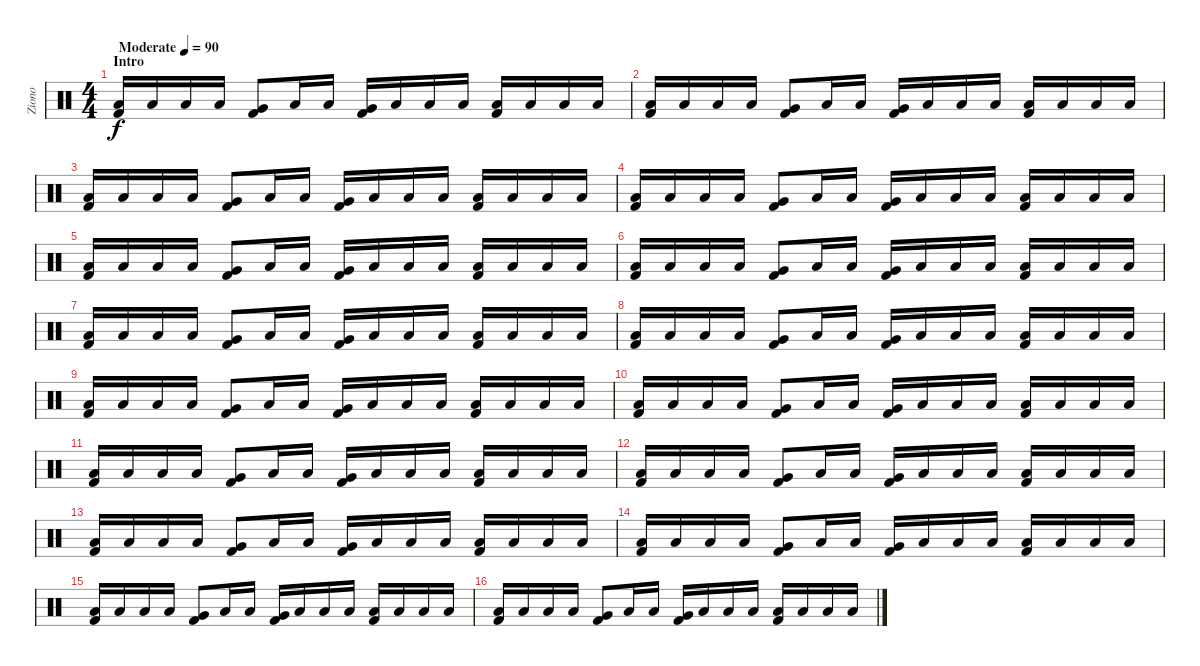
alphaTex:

\track ("Ziono" "Ziono") {instrument percussion}
\staff {score}
\articulation defaults
\ts (4 4)
\section ("" "Intro")
\tempo (90 "Moderate")
\clef neutral
\ks c
("Low Floor Tom (hit)" "Kick (hit) 2").16{dy f} "Low Floor Tom (hit)".16 "Low Floor Tom (hit)".16 "Low Floor Tom (hit)".16 ("Very Low Tom (hit)" "Kick (hit) 2").8 "Low Floor Tom (hit)".16 "Low Floor Tom (hit)".16 ("Very Low Tom (hit)" "Kick (hit) 2").16 "Low Floor Tom (hit)".16 "Low Floor Tom (hit)".16 "Low Floor Tom (hit)".16 ("Low Floor Tom (hit)" "Kick (hit) 2").16 "Low Floor Tom (hit)".16 "Low Floor Tom (hit)".16 "Low Floor Tom (hit)".16 |
("Low Floor Tom (hit)" "Kick (hit) 2").16 "Low Floor Tom (hit)".16 "Low Floor Tom (hit)".16 "Low Floor Tom (hit)".16 ("Very Low Tom (hit)" "Kick (hit) 2").8 "Low Floor Tom (hit)".16 "Low Floor Tom (hit)".16 ("Very Low Tom (hit)" "Kick (hit) 2").16 "Low Floor Tom (hit)".16 "Low Floor Tom (hit)".16 "Low Floor Tom (hit)".16 ("Low Floor Tom (hit)" "Kick (hit) 2").16 "Low Floor Tom (hit)".16 "Low Floor Tom (hit)".16 "Low Floor Tom (hit)".16 |
("Low Floor Tom (hit)" "Kick (hit) 2").16 "Low Floor Tom (hit)".16 "Low Floor Tom (hit)".16 "Low Floor Tom (hit)".16 ("Very Low Tom (hit)" "Kick (hit) 2").8 "Low Floor Tom (hit)".16 "Low Floor Tom (hit)".16 ("Very Low Tom (hit)" "Kick (hit) 2").16 "Low Floor Tom (hit)".16 "Low Floor Tom (hit)".16 "Low Floor Tom (hit)".16 ("Low Floor Tom (hit)" "Kick (hit) 2").16 "Low Floor Tom (hit)".16 "Low Floor Tom (hit)".16 "Low Floor Tom (hit)".16 |
("Low Floor Tom (hit)" "Kick (hit) 2").16 "Low Floor Tom (hit)".16 "Low Floor Tom (hit)".16 "Low Floor Tom (hit)".16 ("Very Low Tom (hit)" "Kick (hit) 2").8 "Low Floor Tom (hit)".16 "Low Floor Tom (hit)".16 ("Very Low Tom (hit)" "Kick (hit) 2").16 "Low Floor Tom (hit)".16 "Low Floor Tom (hit)".16 "Low Floor Tom (hit)".16 ("Low Floor Tom (hit)" "Kick (hit) 2").16 "Low Floor Tom (hit)".16 "Low Floor Tom (hit)".16 "Low Floor Tom (hit)".16 |
("Low Floor Tom (hit)" "Kick (hit) 2").16 "Low Floor Tom (hit)".16 "Low Floor Tom (hit)".16 "Low Floor Tom (hit)".16 ("Very Low Tom (hit)" "Kick (hit) 2").8 "Low Floor Tom (hit)".16 "Low Floor Tom (hit)".16 ("Very Low Tom (hit)" "Kick (hit) 2").16 "Low Floor Tom (hit)".16 "Low Floor Tom (hit)".16 "Low Floor Tom (hit)".16 ("Low Floor Tom (hit)" "Kick (hit) 2").16 "Low Floor Tom (hit)".16 "Low Floor Tom (hit)".16 "Low Floor Tom (hit)".16 |
("Low Floor Tom (hit)" "Kick (hit) 2").16 "Low Floor Tom (hit)".16 "Low Floor Tom (hit)".16 "Low Floor Tom (hit)".16 ("Very Low Tom (hit)" "Kick (hit) 2").8 "Low Floor Tom (hit)".16 "Low Floor Tom (hit)".16 ("Very Low Tom (hit)" "Kick (hit) 2").16 "Low Floor Tom (hit)".16 "Low Floor Tom (hit)".16 "Low Floor Tom (hit)".16 ("Low Floor Tom (hit)" "Kick (hit) 2").16 "Low Floor Tom (hit)".16 "Low Floor Tom (hit)".16 "Low Floor Tom (hit)".16 |
("Low Floor Tom (hit)" "Kick (hit) 2").16 "Low Floor Tom (hit)".16 "Low Floor Tom (hit)".16 "Low Floor Tom (hit)".16 ("Very Low Tom (hit)" "Kick (hit) 2").8 "Low Floor Tom (hit)".16 "Low Floor Tom (hit)".16 ("Very Low Tom (hit)" "Kick (hit) 2").16 "Low Floor Tom (hit)".16 "Low Floor Tom (hit)".16 "Low Floor Tom (hit)".16 ("Low Floor Tom (hit)" "Kick (hit) 2").16 "Low Floor Tom (hit)".16 "Low Floor Tom (hit)".16 "Low Floor Tom (hit)".16 |
("Low Floor Tom (hit)" "Kick (hit) 2").16 "Low Floor Tom (hit)".16 "Low Floor Tom (hit)".16 "Low Floor Tom (hit)".16 ("Very Low Tom (hit)" "Kick (hit) 2").8 "Low Floor Tom (hit)".16 "Low Floor Tom (hit)".16 ("Very Low Tom (hit)" "Kick (hit) 2").16 "Low Floor Tom (hit)".16 "Low Floor Tom (hit)".16 "Low Floor Tom (hit)".16 ("Low Floor Tom (hit)" "Kick (hit) 2").16 "Low Floor Tom (hit)".16 "Low Floor Tom (hit)".16 "Low Floor Tom (hit)".16 |
("Low Floor Tom (hit)" "Kick (hit) 2").16 "Low Floor Tom (hit)".16 "Low Floor Tom (hit)".16 "Low Floor Tom (hit)".16 ("Very Low Tom (hit)" "Kick (hit) 2").8 "Low Floor Tom (hit)".16 "Low Floor Tom (hit)".16 ("Very Low Tom (hit)" "Kick (hit) 2").16 "Low Floor Tom (hit)".16 "Low Floor Tom (hit)".16 "Low Floor Tom (hit)".16 ("Low Floor Tom (hit)" "Kick (hit) 2").16 "Low Floor Tom (hit)".16 "Low Floor Tom (hit)".16 "Low Floor Tom (hit)".16 |
("Low Floor Tom (hit)" "Kick (hit) 2").16 "Low Floor Tom (hit)".16 "Low Floor Tom (hit)".16 "Low Floor Tom (hit)".16 ("Very Low Tom (hit)" "Kick (hit) 2").8 "Low Floor Tom (hit)".16 "Low Floor Tom (hit)".16 ("Very Low Tom (hit)" "Kick (hit) 2").16 "Low Floor Tom (hit)".16 "Low Floor Tom (hit)".16 "Low Floor Tom (hit)".16 ("Low Floor Tom (hit)" "Kick (hit) 2").16 "Low Floor Tom (hit)".16 "Low Floor Tom (hit)".16 "Low Floor Tom (hit)".16 |
("Low Floor Tom (hit)" "Kick (hit) 2").16 "Low Floor Tom (hit)".16 "Low Floor Tom (hit)".16 "Low Floor Tom (hit)".16 ("Very Low Tom (hit)" "Kick (hit) 2").8 "Low Floor Tom (hit)".16 "Low Floor Tom (hit)".16 ("Very Low Tom (hit)" "Kick (hit) 2").16 "Low Floor Tom (hit)".16 "Low Floor Tom (hit)".16 "Low Floor Tom (hit)".16 ("Low Floor Tom (hit)" "Kick (hit) 2").16 "Low Floor Tom (hit)".16 "Low Floor Tom (hit)".16 "Low Floor Tom (hit)".16 |
("Low Floor Tom (hit)" "Kick (hit) 2").16 "Low Floor Tom (hit)".16 "Low Floor Tom (hit)".16 "Low Floor Tom (hit)".16 ("Very Low Tom (hit)" "Kick (hit) 2").8 "Low Floor Tom (hit)".16 "Low Floor Tom (hit)".16 ("Very Low Tom (hit)" "Kick (hit) 2").16 "Low Floor Tom (hit)".16 "Low Floor Tom (hit)".16 "Low Floor Tom (hit)".16 ("Low Floor Tom (hit)" "Kick (hit) 2").16 "Low Floor Tom (hit)".16 "Low Floor Tom (hit)".16 "Low Floor Tom (hit)".16 |
("Low Floor Tom (hit)" "Kick (hit) 2").16 "Low Floor Tom (hit)".16 "Low Floor Tom (hit)".16 "Low Floor Tom (hit)".16 ("Very Low Tom (hit)" "Kick (hit) 2").8 "Low Floor Tom (hit)".16 "Low Floor Tom (hit)".16 ("Very Low Tom (hit)" "Kick (hit) 2").16 "Low Floor Tom (hit)".16 "Low Floor Tom (hit)".16 "Low Floor Tom (hit)".16 ("Low Floor Tom (hit)" "Kick (hit) 2").16 "Low Floor Tom (hit)".16 "Low Floor Tom (hit)".16 "Low Floor Tom (hit)".16 |
("Low Floor Tom (hit)" "Kick (hit) 2").16 "Low Floor Tom (hit)".16 "Low Floor Tom (hit)".16 "Low Floor Tom (hit)".16 ("Very Low Tom (hit)" "Kick (hit) 2").8 "Low Floor Tom (hit)".16 "Low Floor Tom (hit)".16 ("Very Low Tom (hit)" "Kick (hit) 2").16 "Low Floor Tom (hit)".16 "Low Floor Tom (hit)".16 "Low Floor Tom (hit)".16 ("Low Floor Tom (hit)" "Kick (hit) 2").16 "Low Floor Tom (hit)".16 "Low Floor Tom (hit)".16 "Low Floor Tom (hit)".16 |
("Low Floor Tom (hit)" "Kick (hit) 2").16 "Low Floor Tom (hit)".16 "Low Floor Tom (hit)".16 "Low Floor Tom (hit)".16 ("Very Low Tom (hit)" "Kick (hit) 2").8 "Low Floor Tom (hit)".16 "Low Floor Tom (hit)".16 ("Very Low Tom (hit)" "Kick (hit) 2").16 "Low Floor Tom (hit)".16 "Low Floor Tom (hit)".16 "Low Floor Tom (hit)".16 ("Low Floor Tom (hit)" "Kick (hit) 2").16 "Low Floor Tom (hit)".16 "Low Floor Tom (hit)".16 "Low Floor Tom (hit)".16 |
("Low Floor Tom (hit)" "Kick (hit) 2").16 "Low Floor Tom (hit)".16 "Low Floor Tom (hit)".16 "Low Floor Tom (hit)".16 ("Very Low Tom (hit)" "Kick (hit) 2").8 "Low Floor Tom (hit)".16 "Low Floor Tom (hit)".16 ("Very Low Tom (hit)" "Kick (hit) 2").16 "Low Floor Tom (hit)".16 "Low Floor Tom (hit)".16 "Low Floor Tom (hit)".16 ("Low Floor Tom (hit)" "Kick (hit) 2").16 "Low Floor Tom (hit)".16 "Low Floor Tom (hit)".16 "Low Floor Tom (hit)".16
